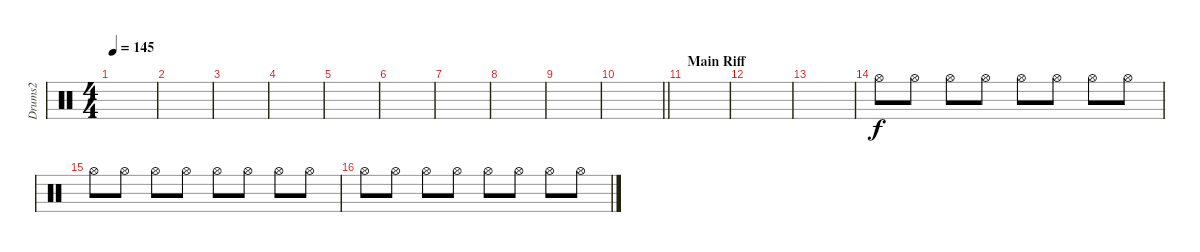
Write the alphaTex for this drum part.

\track ("Drums2" "Drums2") {instrument percussion}
\staff {score}
\articulation defaults
\ts (4 4)
\tempo 145
\clef neutral
\ks c
|
|
|
|
|
|
|
|
|
\barLineRight lightlight
|
\section ("" "Main Riff")
|
|
|
"Hi-Hat (open)".8 "Hi-Hat (open)".8 "Hi-Hat (open)".8 "Hi-Hat (open)".8 "Hi-Hat (open)".8 "Hi-Hat (open)".8 "Hi-Hat (open)".8 "Hi-Hat (open)".8 |
"Hi-Hat (open)".8 "Hi-Hat (open)".8 "Hi-Hat (open)".8 "Hi-Hat (open)".8 "Hi-Hat (open)".8 "Hi-Hat (open)".8 "Hi-Hat (open)".8 "Hi-Hat (open)".8 |
"Hi-Hat (open)".8 "Hi-Hat (open)".8 "Hi-Hat (open)".8 "Hi-Hat (open)".8 "Hi-Hat (open)".8 "Hi-Hat (open)".8 "Hi-Hat (open)".8 "Hi-Hat (open)".8
